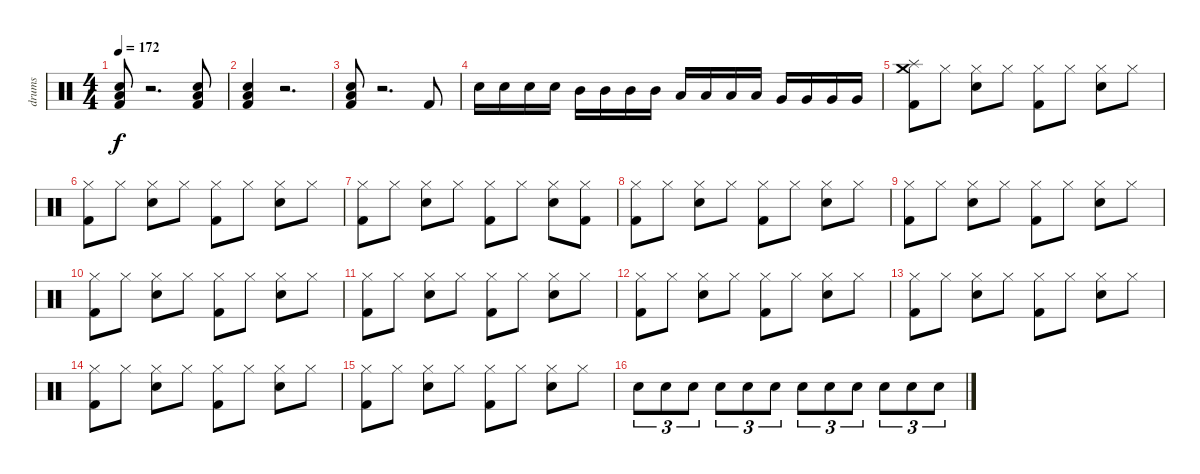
\track ("drums" "drums") {instrument percussion}
\staff {score}
\articulation defaults
\ts (4 4)
\tempo 172
\clef neutral
\ks c
("Low Floor Tom (hit)" "Snare (hit) 2" "Kick (hit) 2").8{dy f} r.2{d} ("Low Floor Tom (hit)" "Snare (hit) 2" "Kick (hit) 2").8 |
("Low Floor Tom (hit)" "Snare (hit) 2" "Kick (hit) 2").4 r.2{d} |
("Low Floor Tom (hit)" "Snare (hit) 2" "Kick (hit) 2").8 r.2{d} "Kick (hit) 2".8 |
"Snare (hit) 2".16 "Snare (hit) 2".16 "Snare (hit) 2".16 "Snare (hit) 2".16 "Mid Tom (hit)".16 "Mid Tom (hit)".16 "Mid Tom (hit)".16 "Mid Tom (hit)".16 "Low Tom (hit)".16 "Low Tom (hit)".16 "Low Tom (hit)".16 "Low Tom (hit)".16 "Very Low Tom (hit)".16 "Very Low Tom (hit)".16 "Very Low Tom (hit)".16 "Very Low Tom (hit)".16 |
("Crash medium (hit)" "Splash (hit)" "Kick (hit) 2").8 "Hi-Hat (closed)".8 ("Hi-Hat (closed)" "Snare (hit) 2").8 "Hi-Hat (closed)".8 ("Hi-Hat (closed)" "Kick (hit) 2").8 "Hi-Hat (closed)".8 ("Hi-Hat (closed)" "Snare (hit) 2").8 "Hi-Hat (closed)".8 |
("Hi-Hat (closed)" "Kick (hit) 2").8 "Hi-Hat (closed)".8 ("Hi-Hat (closed)" "Snare (hit) 2").8 "Hi-Hat (closed)".8 ("Hi-Hat (closed)" "Kick (hit) 2").8 "Hi-Hat (closed)".8 ("Hi-Hat (closed)" "Snare (hit) 2").8 "Hi-Hat (closed)".8 |
("Hi-Hat (closed)" "Kick (hit) 2").8 "Hi-Hat (closed)".8 ("Hi-Hat (closed)" "Snare (hit) 2").8 "Hi-Hat (closed)".8 ("Hi-Hat (closed)" "Kick (hit) 2").8 "Hi-Hat (closed)".8 ("Hi-Hat (closed)" "Snare (hit) 2").8 ("Hi-Hat (closed)" "Kick (hit) 2").8 |
("Hi-Hat (closed)" "Kick (hit) 2").8 "Hi-Hat (closed)".8 ("Hi-Hat (closed)" "Snare (hit) 2").8 "Hi-Hat (closed)".8 ("Hi-Hat (closed)" "Kick (hit) 2").8 "Hi-Hat (closed)".8 ("Hi-Hat (closed)" "Snare (hit) 2").8 "Hi-Hat (closed)".8 |
("Hi-Hat (closed)" "Kick (hit) 2").8 "Hi-Hat (closed)".8 ("Hi-Hat (closed)" "Snare (hit) 2").8 "Hi-Hat (closed)".8 ("Hi-Hat (closed)" "Kick (hit) 2").8 "Hi-Hat (closed)".8 ("Hi-Hat (closed)" "Snare (hit) 2").8 "Hi-Hat (closed)".8 |
("Hi-Hat (closed)" "Kick (hit) 2").8 "Hi-Hat (closed)".8 ("Hi-Hat (closed)" "Snare (hit) 2").8 "Hi-Hat (closed)".8 ("Hi-Hat (closed)" "Kick (hit) 2").8 "Hi-Hat (closed)".8 ("Hi-Hat (closed)" "Snare (hit) 2").8 "Hi-Hat (closed)".8 |
("Hi-Hat (closed)" "Kick (hit) 2").8 "Hi-Hat (closed)".8 ("Hi-Hat (closed)" "Snare (hit) 2").8 "Hi-Hat (closed)".8 ("Hi-Hat (closed)" "Kick (hit) 2").8 "Hi-Hat (closed)".8 ("Hi-Hat (closed)" "Snare (hit) 2").8 "Hi-Hat (closed)".8 |
("Hi-Hat (closed)" "Kick (hit) 2").8 "Hi-Hat (closed)".8 ("Hi-Hat (closed)" "Snare (hit) 2").8 "Hi-Hat (closed)".8 ("Hi-Hat (closed)" "Kick (hit) 2").8 "Hi-Hat (closed)".8 ("Hi-Hat (closed)" "Snare (hit) 2").8 "Hi-Hat (closed)".8 |
("Hi-Hat (closed)" "Kick (hit) 2").8 "Hi-Hat (closed)".8 ("Hi-Hat (closed)" "Snare (hit) 2").8 "Hi-Hat (closed)".8 ("Hi-Hat (closed)" "Kick (hit) 2").8 "Hi-Hat (closed)".8 ("Hi-Hat (closed)" "Snare (hit) 2").8 "Hi-Hat (closed)".8 |
("Hi-Hat (closed)" "Kick (hit) 2").8 "Hi-Hat (closed)".8 ("Hi-Hat (closed)" "Snare (hit) 2").8 "Hi-Hat (closed)".8 ("Hi-Hat (closed)" "Kick (hit) 2").8 "Hi-Hat (closed)".8 ("Hi-Hat (closed)" "Snare (hit) 2").8 "Hi-Hat (closed)".8 |
("Hi-Hat (closed)" "Kick (hit) 2").8 "Hi-Hat (closed)".8 ("Hi-Hat (closed)" "Snare (hit) 2").8 "Hi-Hat (closed)".8 ("Hi-Hat (closed)" "Kick (hit) 2").8 "Hi-Hat (closed)".8 ("Hi-Hat (closed)" "Snare (hit) 2").8 "Hi-Hat (closed)".8 |
"Snare (hit) 2".8{tu (3 2)} "Snare (hit) 2".8{tu (3 2)} "Snare (hit) 2".8{tu (3 2)} "Snare (hit) 2".8{tu (3 2)} "Snare (hit) 2".8{tu (3 2)} "Snare (hit) 2".8{tu (3 2)} "Snare (hit) 2".8{tu (3 2)} "Snare (hit) 2".8{tu (3 2)} "Snare (hit) 2".8{tu (3 2)} "Snare (hit) 2".8{tu (3 2)} "Snare (hit) 2".8{tu (3 2)} "Snare (hit) 2".8{tu (3 2)}
